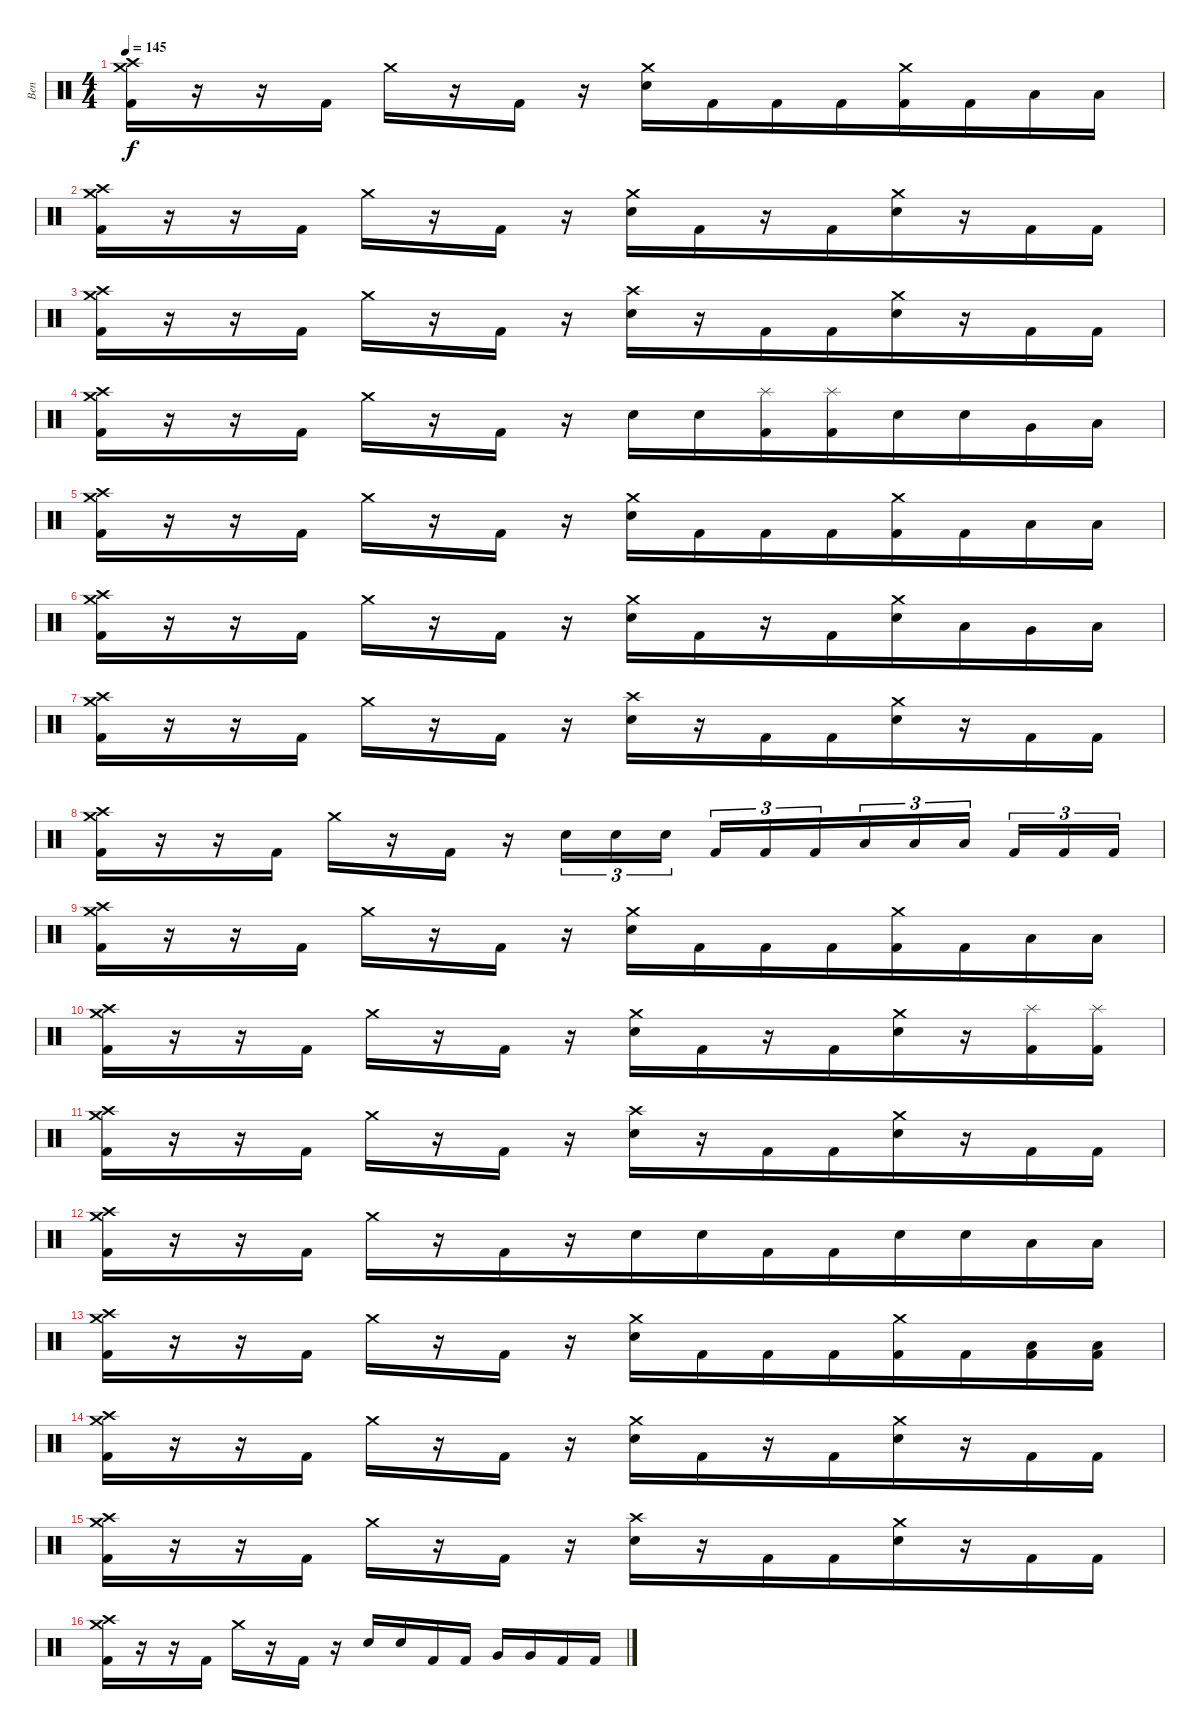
\track ("Ben" "Ben") {instrument percussion}
\staff {score}
\articulation defaults
\ts (4 4)
\tempo 145
\clef neutral
\ks c
("Kick (hit) 2" "Crash medium (hit)" "Crash high (hit)").16{dy f} r.16{beam merge} r.16 "Kick (hit) 2".16 "Crash medium (hit)".16{beam merge} r.16{beam merge} "Kick (hit) 2".16 r.16{beam merge} ("Crash medium (hit)" "Electric Snare (hit)").16 "Kick (hit) 2".16{beam merge} "Kick (hit) 2".16{beam merge} "Kick (hit) 2".16{beam merge} ("Kick (hit) 2" "Crash medium (hit)").16{beam merge} "Kick (hit) 2".16{beam merge} "Low Tom (hit)".16{beam merge} "Low Tom (hit)".16 |
("Kick (hit) 2" "Crash medium (hit)" "Crash high (hit)").16 r.16{beam merge} r.16 "Kick (hit) 2".16 "Crash medium (hit)".16{beam merge} r.16{beam merge} "Kick (hit) 2".16 r.16{beam merge} ("Crash medium (hit)" "Electric Snare (hit)").16 "Kick (hit) 2".16{beam merge} r.16{beam merge} "Kick (hit) 2".16{beam merge} ("Electric Snare (hit)" "Crash medium (hit)").16{beam merge} r.16{beam merge} "Kick (hit) 2".16{beam merge} "Kick (hit) 2".16 |
("Kick (hit) 2" "Crash medium (hit)" "Crash high (hit)").16 r.16{beam merge} r.16 "Kick (hit) 2".16 "Crash medium (hit)".16{beam merge} r.16{beam merge} "Kick (hit) 2".16 r.16{beam merge} ("Crash high (hit)" "Electric Snare (hit)").16{beam merge} r.16{beam merge} "Kick (hit) 2".16{beam merge} "Kick (hit) 2".16{beam merge} ("Electric Snare (hit)" "Crash medium (hit)").16{beam merge} r.16{beam merge} "Kick (hit) 2".16 "Kick (hit) 2".16 |
("Kick (hit) 2" "Crash medium (hit)" "Crash high (hit)").16 r.16{beam merge} r.16 "Kick (hit) 2".16 "Crash medium (hit)".16{beam merge} r.16{beam merge} "Kick (hit) 2".16 r.16{beam merge} "Electric Snare (hit)".16{beam merge} "Electric Snare (hit)".16 ("Kick (hit) 2" "Splash (hit)").16 ("Kick (hit) 2" "Splash (hit)").16{beam merge} "Electric Snare (hit)".16{beam merge} "Electric Snare (hit)".16 "Very Low Tom (hit)".16{beam merge} "Low Floor Tom (hit)".16 |
("Kick (hit) 2" "Crash medium (hit)" "Crash high (hit)").16 r.16{beam merge} r.16 "Kick (hit) 2".16 "Crash medium (hit)".16{beam merge} r.16{beam merge} "Kick (hit) 2".16 r.16{beam merge} ("Crash medium (hit)" "Electric Snare (hit)").16 "Kick (hit) 2".16{beam merge} "Kick (hit) 2".16{beam merge} "Kick (hit) 2".16{beam merge} ("Kick (hit) 2" "Crash medium (hit)").16{beam merge} "Kick (hit) 2".16{beam merge} "Low Tom (hit)".16{beam merge} "Low Tom (hit)".16 |
("Kick (hit) 2" "Crash medium (hit)" "Crash high (hit)").16 r.16{beam merge} r.16 "Kick (hit) 2".16 "Crash medium (hit)".16{beam merge} r.16{beam merge} "Kick (hit) 2".16 r.16{beam merge} ("Crash medium (hit)" "Electric Snare (hit)").16 "Kick (hit) 2".16{beam merge} r.16{beam merge} "Kick (hit) 2".16{beam merge} ("Electric Snare (hit)" "Crash medium (hit)").16{beam merge} "Low Tom (hit)".16{beam merge} "Very Low Tom (hit)".16{beam merge} "Low Floor Tom (hit)".16 |
("Kick (hit) 2" "Crash medium (hit)" "Crash high (hit)").16 r.16{beam merge} r.16 "Kick (hit) 2".16 "Crash medium (hit)".16{beam merge} r.16{beam merge} "Kick (hit) 2".16 r.16{beam merge} ("Crash high (hit)" "Electric Snare (hit)").16{beam merge} r.16{beam merge} "Kick (hit) 2".16{beam merge} "Kick (hit) 2".16{beam merge} ("Electric Snare (hit)" "Crash medium (hit)").16{beam merge} r.16{beam merge} "Kick (hit) 2".16 "Kick (hit) 2".16 |
("Kick (hit) 2" "Crash medium (hit)" "Crash high (hit)").16 r.16{beam merge} r.16 "Kick (hit) 2".16 "Crash medium (hit)".16{beam merge} r.16{beam merge} "Kick (hit) 2".16 r.16{beam merge} "Electric Snare (hit)".16{tu (3 2) beam merge} "Electric Snare (hit)".16{tu (3 2)} "Electric Snare (hit)".16{tu (3 2) beam splitsecondary} "Kick (hit) 2".16{tu (3 2)} "Kick (hit) 2".16{tu (3 2) beam merge} "Kick (hit) 2".16{tu (3 2) beam merge} "Low Tom (hit)".16{tu (3 2)} "Low Tom (hit)".16{tu (3 2)} "Low Tom (hit)".16{tu (3 2) beam splitsecondary} "Kick (hit) 2".16{tu (3 2) beam merge} "Kick (hit) 2".16{tu (3 2) beam merge} "Kick (hit) 2".16{tu (3 2)} |
("Kick (hit) 2" "Crash medium (hit)" "Crash high (hit)").16 r.16{beam merge} r.16 "Kick (hit) 2".16 "Crash medium (hit)".16{beam merge} r.16{beam merge} "Kick (hit) 2".16 r.16{beam merge} ("Crash medium (hit)" "Electric Snare (hit)").16 "Kick (hit) 2".16{beam merge} "Kick (hit) 2".16{beam merge} "Kick (hit) 2".16{beam merge} ("Kick (hit) 2" "Crash medium (hit)").16{beam merge} "Kick (hit) 2".16{beam merge} "Low Tom (hit)".16{beam merge} "Low Tom (hit)".16 |
("Kick (hit) 2" "Crash medium (hit)" "Crash high (hit)").16 r.16{beam merge} r.16 "Kick (hit) 2".16 "Crash medium (hit)".16{beam merge} r.16{beam merge} "Kick (hit) 2".16 r.16{beam merge} ("Crash medium (hit)" "Electric Snare (hit)").16 "Kick (hit) 2".16{beam merge} r.16{beam merge} "Kick (hit) 2".16{beam merge} ("Electric Snare (hit)" "Crash medium (hit)").16{beam merge} r.16{beam merge} ("Kick (hit) 2" "Splash (hit)").16{beam merge} ("Kick (hit) 2" "Splash (hit)").16 |
("Kick (hit) 2" "Crash medium (hit)" "Crash high (hit)").16 r.16{beam merge} r.16 "Kick (hit) 2".16 "Crash medium (hit)".16{beam merge} r.16{beam merge} "Kick (hit) 2".16 r.16{beam merge} ("Crash high (hit)" "Electric Snare (hit)").16{beam merge} r.16{beam merge} "Kick (hit) 2".16{beam merge} "Kick (hit) 2".16{beam merge} ("Electric Snare (hit)" "Crash medium (hit)").16{beam merge} r.16{beam merge} "Kick (hit) 2".16 "Kick (hit) 2".16 |
("Kick (hit) 2" "Crash medium (hit)" "Crash high (hit)").16 r.16{beam merge} r.16 "Kick (hit) 2".16 "Crash medium (hit)".16{beam merge} r.16{beam merge} "Kick (hit) 2".16{beam merge} r.16{beam merge} "Electric Snare (hit)".16{beam merge} "Electric Snare (hit)".16 "Kick (hit) 2".16 "Kick (hit) 2".16{beam merge} "Electric Snare (hit)".16{beam merge} "Electric Snare (hit)".16 "Low Tom (hit)".16{beam merge} "Low Floor Tom (hit)".16 |
("Kick (hit) 2" "Crash medium (hit)" "Crash high (hit)").16 r.16{beam merge} r.16 "Kick (hit) 2".16 "Crash medium (hit)".16{beam merge} r.16{beam merge} "Kick (hit) 2".16 r.16{beam merge} ("Crash medium (hit)" "Electric Snare (hit)").16 "Kick (hit) 2".16{beam merge} "Kick (hit) 2".16{beam merge} "Kick (hit) 2".16{beam merge} ("Kick (hit) 2" "Crash medium (hit)").16{beam merge} "Kick (hit) 2".16{beam merge} ("Low Tom (hit)" "Kick (hit) 2").16{beam merge} ("Low Tom (hit)" "Kick (hit) 2").16 |
("Kick (hit) 2" "Crash medium (hit)" "Crash high (hit)").16 r.16{beam merge} r.16 "Kick (hit) 2".16 "Crash medium (hit)".16{beam merge} r.16{beam merge} "Kick (hit) 2".16 r.16{beam merge} ("Crash medium (hit)" "Electric Snare (hit)").16 "Kick (hit) 2".16{beam merge} r.16{beam merge} "Kick (hit) 2".16{beam merge} ("Electric Snare (hit)" "Crash medium (hit)").16{beam merge} r.16{beam merge} "Kick (hit) 2".16{beam merge} "Kick (hit) 2".16 |
("Kick (hit) 2" "Crash medium (hit)" "Crash high (hit)").16 r.16{beam merge} r.16 "Kick (hit) 2".16 "Crash medium (hit)".16{beam merge} r.16{beam merge} "Kick (hit) 2".16 r.16{beam merge} ("Crash high (hit)" "Electric Snare (hit)").16{beam merge} r.16{beam merge} "Kick (hit) 2".16{beam merge} "Kick (hit) 2".16{beam merge} ("Electric Snare (hit)" "Crash medium (hit)").16{beam merge} r.16{beam merge} "Kick (hit) 2".16 "Kick (hit) 2".16 |
("Kick (hit) 2" "Crash medium (hit)" "Crash high (hit)").16 r.16{beam merge} r.16 "Kick (hit) 2".16 "Crash medium (hit)".16{beam merge} r.16{beam merge} "Kick (hit) 2".16 r.16{beam merge} "Electric Snare (hit)".16 "Electric Snare (hit)".16{beam merge} "Kick (hit) 2".16 "Kick (hit) 2".16 "Very Low Tom (hit)".16 "Very Low Tom (hit)".16 "Kick (hit) 2".16 "Kick (hit) 2".16
